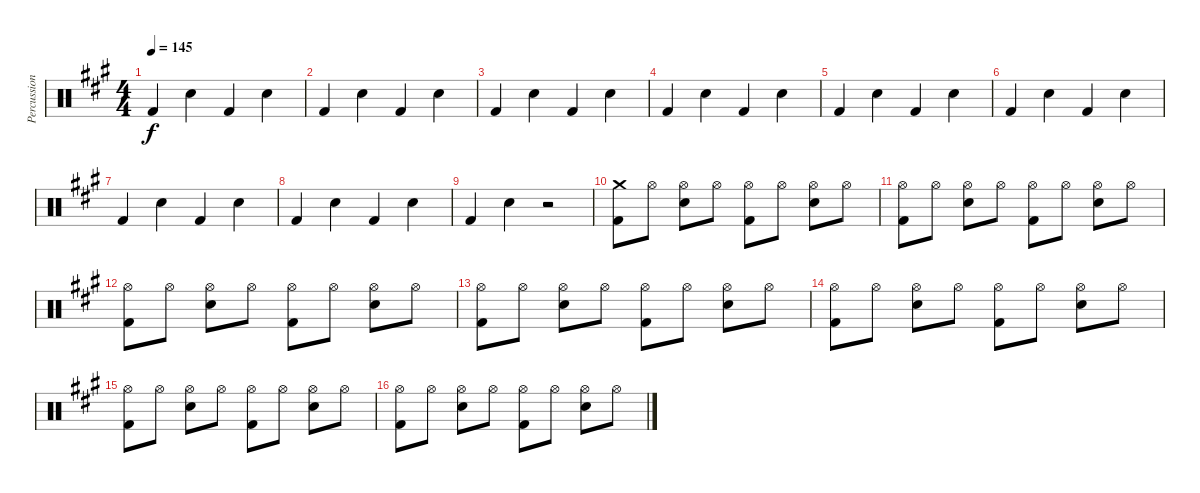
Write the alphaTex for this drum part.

\track ("Percussion" "Percussion") {instrument percussion}
\staff {score}
\articulation defaults
\ts (4 4)
\tempo 145
\clef neutral
\ks a "Kick (hit) 2".4{dy f} "Snare (hit) 2".4 "Kick (hit) 2".4 "Snare (hit) 2".4
|
"Kick (hit) 2".4 "Snare (hit) 2".4 "Kick (hit) 2".4 "Snare (hit) 2".4 |
"Kick (hit) 2".4 "Snare (hit) 2".4 "Kick (hit) 2".4 "Snare (hit) 2".4 |
"Kick (hit) 2".4 "Snare (hit) 2".4 "Kick (hit) 2".4 "Snare (hit) 2".4 |
"Kick (hit) 2".4 "Snare (hit) 2".4 "Kick (hit) 2".4 "Snare (hit) 2".4 |
"Kick (hit) 2".4 "Snare (hit) 2".4 "Kick (hit) 2".4 "Snare (hit) 2".4 |
"Kick (hit) 2".4 "Snare (hit) 2".4 "Kick (hit) 2".4 "Snare (hit) 2".4 |
"Kick (hit) 2".4 "Snare (hit) 2".4 "Kick (hit) 2".4 "Snare (hit) 2".4 |
"Kick (hit) 2".4 "Snare (hit) 2".4 r.2 |
("Crash medium (hit)" "Kick (hit) 2").8 "Hi-Hat (open)".8 ("Hi-Hat (open)" "Snare (hit) 2").8 "Hi-Hat (open)".8 ("Hi-Hat (open)" "Kick (hit) 2").8 "Hi-Hat (open)".8 ("Hi-Hat (open)" "Snare (hit) 2").8 "Hi-Hat (open)".8 |
("Hi-Hat (open)" "Kick (hit) 2").8 "Hi-Hat (open)".8 ("Hi-Hat (open)" "Snare (hit) 2").8 "Hi-Hat (open)".8 ("Hi-Hat (open)" "Kick (hit) 2").8 "Hi-Hat (open)".8 ("Hi-Hat (open)" "Snare (hit) 2").8 "Hi-Hat (open)".8 |
("Hi-Hat (open)" "Kick (hit) 2").8 "Hi-Hat (open)".8 ("Hi-Hat (open)" "Snare (hit) 2").8 "Hi-Hat (open)".8 ("Hi-Hat (open)" "Kick (hit) 2").8 "Hi-Hat (open)".8 ("Hi-Hat (open)" "Snare (hit) 2").8 "Hi-Hat (open)".8 |
("Hi-Hat (open)" "Kick (hit) 2").8 "Hi-Hat (open)".8 ("Hi-Hat (open)" "Snare (hit) 2").8 "Hi-Hat (open)".8 ("Hi-Hat (open)" "Kick (hit) 2").8 "Hi-Hat (open)".8 ("Hi-Hat (open)" "Snare (hit) 2").8 "Hi-Hat (open)".8 |
("Hi-Hat (open)" "Kick (hit) 2").8 "Hi-Hat (open)".8 ("Hi-Hat (open)" "Snare (hit) 2").8 "Hi-Hat (open)".8 ("Hi-Hat (open)" "Kick (hit) 2").8 "Hi-Hat (open)".8 ("Hi-Hat (open)" "Snare (hit) 2").8 "Hi-Hat (open)".8 |
("Hi-Hat (open)" "Kick (hit) 2").8 "Hi-Hat (open)".8 ("Hi-Hat (open)" "Snare (hit) 2").8 "Hi-Hat (open)".8 ("Hi-Hat (open)" "Kick (hit) 2").8 "Hi-Hat (open)".8 ("Hi-Hat (open)" "Snare (hit) 2").8 "Hi-Hat (open)".8 |
("Hi-Hat (open)" "Kick (hit) 2").8 "Hi-Hat (open)".8 ("Hi-Hat (open)" "Snare (hit) 2").8 "Hi-Hat (open)".8 ("Hi-Hat (open)" "Kick (hit) 2").8 "Hi-Hat (open)".8 ("Hi-Hat (open)" "Snare (hit) 2").8 "Hi-Hat (open)".8
